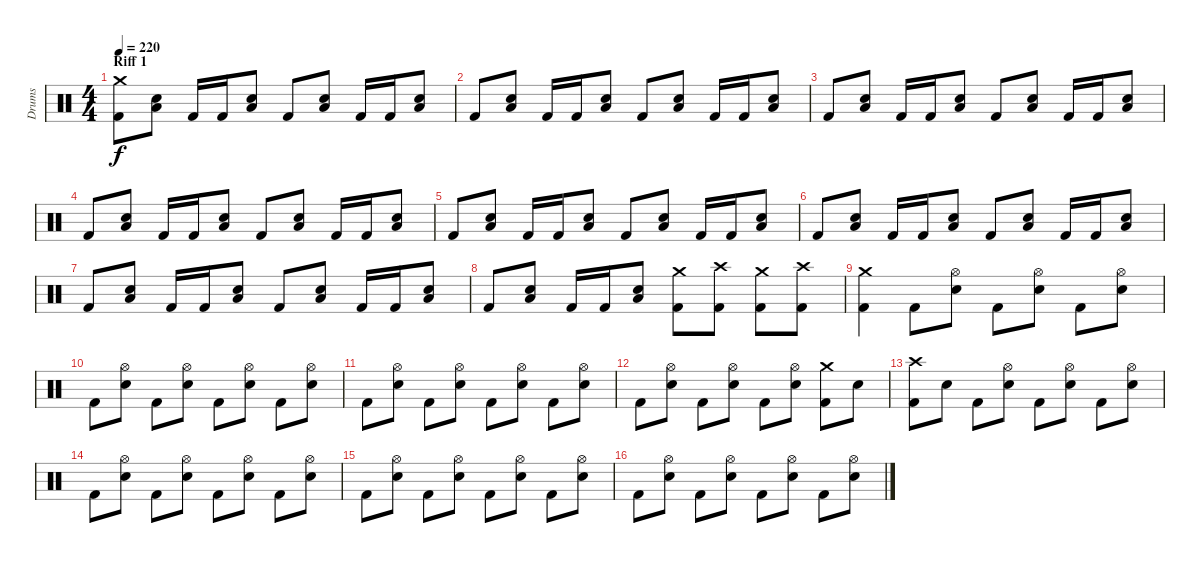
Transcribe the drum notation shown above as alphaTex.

\track ("Drums" "Drums") {instrument percussion}
\staff {score}
\articulation defaults
\ts (4 4)
\section ("" "Riff 1")
\tempo 220
\clef neutral
\ks c
("Kick (hit) 2" "Crash medium (hit)").8{dy f} ("Low Floor Tom (hit)" "Electric Snare (hit)").8 "Kick (hit) 2".16 "Kick (hit) 2".16 ("Electric Snare (hit)" "Low Floor Tom (hit)").8 "Kick (hit) 2".8 ("Low Floor Tom (hit)" "Electric Snare (hit)").8 "Kick (hit) 2".16 "Kick (hit) 2".16 ("Electric Snare (hit)" "Low Floor Tom (hit)").8 |
"Kick (hit) 2".8 ("Low Floor Tom (hit)" "Electric Snare (hit)").8 "Kick (hit) 2".16 "Kick (hit) 2".16 ("Electric Snare (hit)" "Low Floor Tom (hit)").8 "Kick (hit) 2".8 ("Low Floor Tom (hit)" "Electric Snare (hit)").8 "Kick (hit) 2".16 "Kick (hit) 2".16 ("Electric Snare (hit)" "Low Floor Tom (hit)").8 |
"Kick (hit) 2".8 ("Low Floor Tom (hit)" "Electric Snare (hit)").8 "Kick (hit) 2".16 "Kick (hit) 2".16 ("Electric Snare (hit)" "Low Floor Tom (hit)").8 "Kick (hit) 2".8 ("Low Floor Tom (hit)" "Electric Snare (hit)").8 "Kick (hit) 2".16 "Kick (hit) 2".16 ("Electric Snare (hit)" "Low Floor Tom (hit)").8 |
"Kick (hit) 2".8 ("Low Floor Tom (hit)" "Electric Snare (hit)").8 "Kick (hit) 2".16 "Kick (hit) 2".16 ("Electric Snare (hit)" "Low Floor Tom (hit)").8 "Kick (hit) 2".8 ("Low Floor Tom (hit)" "Electric Snare (hit)").8 "Kick (hit) 2".16 "Kick (hit) 2".16 ("Electric Snare (hit)" "Low Floor Tom (hit)").8 |
"Kick (hit) 2".8 ("Low Floor Tom (hit)" "Electric Snare (hit)").8 "Kick (hit) 2".16 "Kick (hit) 2".16 ("Electric Snare (hit)" "Low Floor Tom (hit)").8 "Kick (hit) 2".8 ("Low Floor Tom (hit)" "Electric Snare (hit)").8 "Kick (hit) 2".16 "Kick (hit) 2".16 ("Electric Snare (hit)" "Low Floor Tom (hit)").8 |
"Kick (hit) 2".8 ("Low Floor Tom (hit)" "Electric Snare (hit)").8 "Kick (hit) 2".16 "Kick (hit) 2".16 ("Electric Snare (hit)" "Low Floor Tom (hit)").8 "Kick (hit) 2".8 ("Low Floor Tom (hit)" "Electric Snare (hit)").8 "Kick (hit) 2".16 "Kick (hit) 2".16 ("Electric Snare (hit)" "Low Floor Tom (hit)").8 |
"Kick (hit) 2".8 ("Low Floor Tom (hit)" "Electric Snare (hit)").8 "Kick (hit) 2".16 "Kick (hit) 2".16 ("Electric Snare (hit)" "Low Floor Tom (hit)").8 "Kick (hit) 2".8 ("Low Floor Tom (hit)" "Electric Snare (hit)").8 "Kick (hit) 2".16 "Kick (hit) 2".16 ("Electric Snare (hit)" "Low Floor Tom (hit)").8 |
"Kick (hit) 2".8 ("Low Floor Tom (hit)" "Electric Snare (hit)").8 "Kick (hit) 2".16 "Kick (hit) 2".16 ("Electric Snare (hit)" "Low Floor Tom (hit)").8 ("Kick (hit) 2" "Crash medium (hit)").8 ("Kick (hit) 2" "Crash high (hit)").8 ("Kick (hit) 2" "Crash medium (hit)").8 ("Kick (hit) 2" "Crash high (hit)").8 |
("Crash medium (hit)" "Kick (hit) 2").4 "Kick (hit) 2".8 ("Electric Snare (hit)" "Hi-Hat (open)").8 "Kick (hit) 2".8 ("Electric Snare (hit)" "Hi-Hat (open)").8 "Kick (hit) 2".8 ("Electric Snare (hit)" "Hi-Hat (open)").8 |
"Kick (hit) 2".8 ("Electric Snare (hit)" "Hi-Hat (open)").8 "Kick (hit) 2".8 ("Electric Snare (hit)" "Hi-Hat (open)").8 "Kick (hit) 2".8 ("Electric Snare (hit)" "Hi-Hat (open)").8 "Kick (hit) 2".8 ("Electric Snare (hit)" "Hi-Hat (open)").8 |
"Kick (hit) 2".8 ("Electric Snare (hit)" "Hi-Hat (open)").8 "Kick (hit) 2".8 ("Electric Snare (hit)" "Hi-Hat (open)").8 "Kick (hit) 2".8 ("Electric Snare (hit)" "Hi-Hat (open)").8 "Kick (hit) 2".8 ("Electric Snare (hit)" "Hi-Hat (open)").8 |
"Kick (hit) 2".8 ("Electric Snare (hit)" "Hi-Hat (open)").8 "Kick (hit) 2".8 ("Electric Snare (hit)" "Hi-Hat (open)").8 "Kick (hit) 2".8 ("Electric Snare (hit)" "Hi-Hat (open)").8 ("Kick (hit) 2" "Crash medium (hit)").8 "Electric Snare (hit)".8 |
("Kick (hit) 2" "Crash high (hit)").8 "Electric Snare (hit)".8 "Kick (hit) 2".8 ("Electric Snare (hit)" "Hi-Hat (open)").8 "Kick (hit) 2".8 ("Electric Snare (hit)" "Hi-Hat (open)").8 "Kick (hit) 2".8 ("Electric Snare (hit)" "Hi-Hat (open)").8 |
"Kick (hit) 2".8 ("Electric Snare (hit)" "Hi-Hat (open)").8 "Kick (hit) 2".8 ("Electric Snare (hit)" "Hi-Hat (open)").8 "Kick (hit) 2".8 ("Electric Snare (hit)" "Hi-Hat (open)").8 "Kick (hit) 2".8 ("Electric Snare (hit)" "Hi-Hat (open)").8 |
"Kick (hit) 2".8 ("Electric Snare (hit)" "Hi-Hat (open)").8 "Kick (hit) 2".8 ("Electric Snare (hit)" "Hi-Hat (open)").8 "Kick (hit) 2".8 ("Electric Snare (hit)" "Hi-Hat (open)").8 "Kick (hit) 2".8 ("Electric Snare (hit)" "Hi-Hat (open)").8 |
"Kick (hit) 2".8 ("Electric Snare (hit)" "Hi-Hat (open)").8 "Kick (hit) 2".8 ("Electric Snare (hit)" "Hi-Hat (open)").8 "Kick (hit) 2".8 ("Electric Snare (hit)" "Hi-Hat (open)").8 "Kick (hit) 2".8 ("Electric Snare (hit)" "Hi-Hat (open)").8
